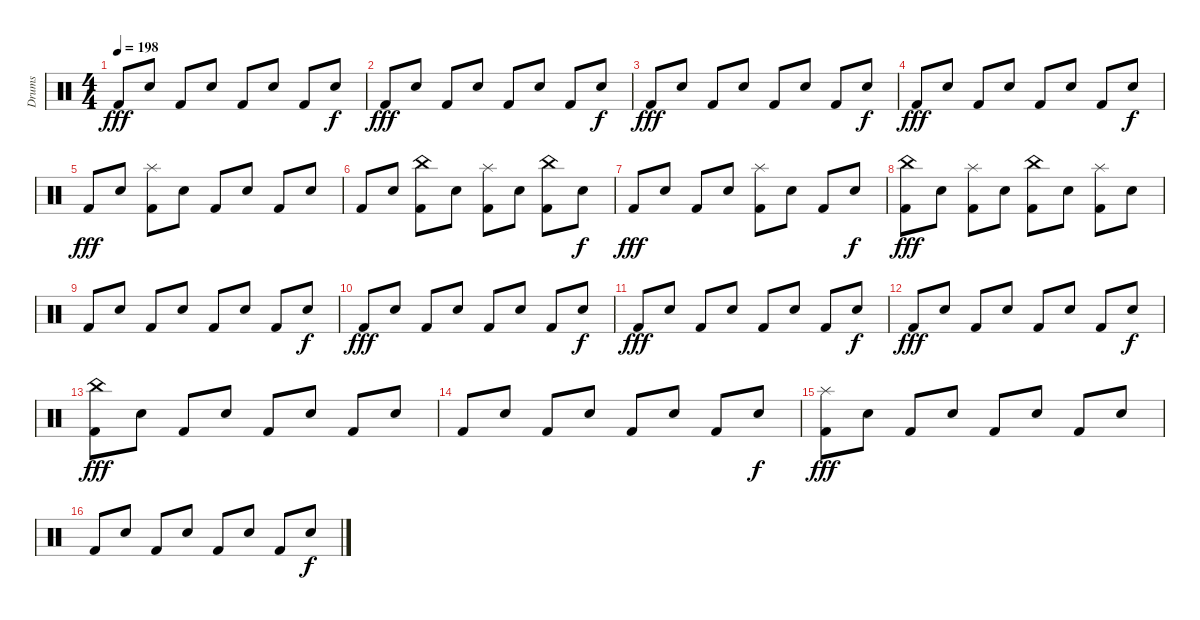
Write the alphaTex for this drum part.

\track ("Drums" "Drums") {instrument percussion}
\staff {score}
\articulation defaults
\ts (4 4)
\tempo 198
\clef neutral
\ks c "Kick (hit) 2".8{dy fff} "Snare (hit) 2".8 "Kick (hit) 2".8 "Snare (hit) 2".8 "Kick (hit) 2".8 "Snare (hit) 2".8 "Kick (hit) 2".8 "Snare (hit) 2".8{dy f}
|
"Kick (hit) 2".8{dy fff} "Snare (hit) 2".8 "Kick (hit) 2".8 "Snare (hit) 2".8 "Kick (hit) 2".8 "Snare (hit) 2".8 "Kick (hit) 2".8 "Snare (hit) 2".8{dy f} |
"Kick (hit) 2".8{dy fff} "Snare (hit) 2".8 "Kick (hit) 2".8 "Snare (hit) 2".8 "Kick (hit) 2".8 "Snare (hit) 2".8 "Kick (hit) 2".8 "Snare (hit) 2".8{dy f} |
"Kick (hit) 2".8{dy fff} "Snare (hit) 2".8 "Kick (hit) 2".8 "Snare (hit) 2".8 "Kick (hit) 2".8 "Snare (hit) 2".8 "Kick (hit) 2".8 "Snare (hit) 2".8{dy f} |
"Kick (hit) 2".8{dy fff} "Snare (hit) 2".8 ("Splash (hit)" "Kick (hit) 2").8 "Snare (hit) 2".8 "Kick (hit) 2".8 "Snare (hit) 2".8 "Kick (hit) 2".8 "Snare (hit) 2".8 |
"Kick (hit) 2".8 "Snare (hit) 2".8 ("China (hit)" "Kick (hit) 2").8 "Snare (hit) 2".8 ("Splash (hit)" "Kick (hit) 2").8 "Snare (hit) 2".8 ("China (hit)" "Kick (hit) 2").8 "Snare (hit) 2".8{dy f} |
"Kick (hit) 2".8{dy fff} "Snare (hit) 2".8 "Kick (hit) 2".8 "Snare (hit) 2".8 ("Splash (hit)" "Kick (hit) 2").8 "Snare (hit) 2".8 "Kick (hit) 2".8 "Snare (hit) 2".8{dy f} |
("China (hit)" "Kick (hit) 2").8{dy fff} "Snare (hit) 2".8 ("Splash (hit)" "Kick (hit) 2").8 "Snare (hit) 2".8 ("China (hit)" "Kick (hit) 2").8 "Snare (hit) 2".8 ("Splash (hit)" "Kick (hit) 2").8 "Snare (hit) 2".8 |
"Kick (hit) 2".8 "Snare (hit) 2".8 "Kick (hit) 2".8 "Snare (hit) 2".8 "Kick (hit) 2".8 "Snare (hit) 2".8 "Kick (hit) 2".8 "Snare (hit) 2".8{dy f} |
"Kick (hit) 2".8{dy fff} "Snare (hit) 2".8 "Kick (hit) 2".8 "Snare (hit) 2".8 "Kick (hit) 2".8 "Snare (hit) 2".8 "Kick (hit) 2".8 "Snare (hit) 2".8{dy f} |
"Kick (hit) 2".8{dy fff} "Snare (hit) 2".8 "Kick (hit) 2".8 "Snare (hit) 2".8 "Kick (hit) 2".8 "Snare (hit) 2".8 "Kick (hit) 2".8 "Snare (hit) 2".8{dy f} |
"Kick (hit) 2".8{dy fff} "Snare (hit) 2".8 "Kick (hit) 2".8 "Snare (hit) 2".8 "Kick (hit) 2".8 "Snare (hit) 2".8 "Kick (hit) 2".8 "Snare (hit) 2".8{dy f} |
("China (hit)" "Kick (hit) 2").8{dy fff} "Snare (hit) 2".8 "Kick (hit) 2".8 "Snare (hit) 2".8 "Kick (hit) 2".8 "Snare (hit) 2".8 "Kick (hit) 2".8 "Snare (hit) 2".8 |
"Kick (hit) 2".8 "Snare (hit) 2".8 "Kick (hit) 2".8 "Snare (hit) 2".8 "Kick (hit) 2".8 "Snare (hit) 2".8 "Kick (hit) 2".8 "Snare (hit) 2".8{dy f} |
("Splash (hit)" "Kick (hit) 2").8{dy fff} "Snare (hit) 2".8 "Kick (hit) 2".8 "Snare (hit) 2".8 "Kick (hit) 2".8 "Snare (hit) 2".8 "Kick (hit) 2".8 "Snare (hit) 2".8 |
"Kick (hit) 2".8 "Snare (hit) 2".8 "Kick (hit) 2".8 "Snare (hit) 2".8 "Kick (hit) 2".8 "Snare (hit) 2".8 "Kick (hit) 2".8 "Snare (hit) 2".8{dy f}
